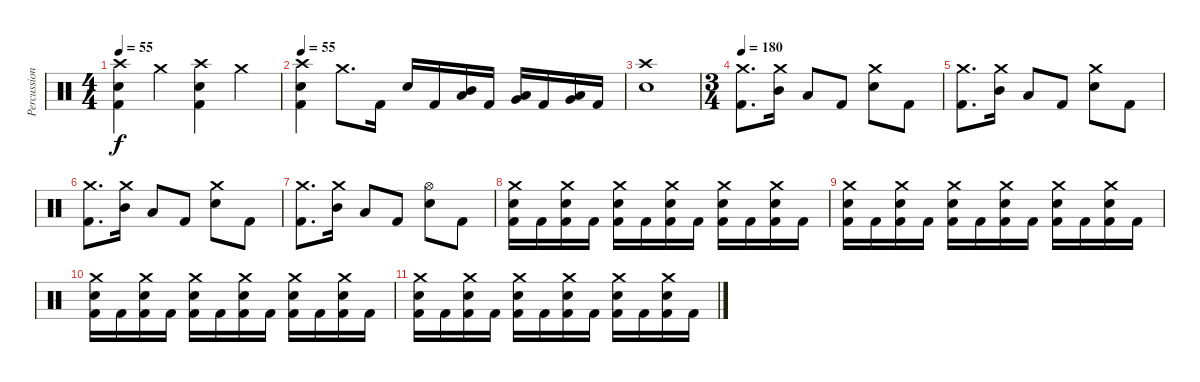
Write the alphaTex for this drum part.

\track ("Percussion" "Percussion") {instrument percussion}
\staff {score}
\articulation defaults
\ts (4 4)
\tempo 55
\clef neutral
\ks c
("Electric Snare (hit)" "Kick (hit) 2" "Crash high (hit)").4{dy f} "Crash medium (hit)".4 ("Electric Snare (hit)" "Kick (hit) 2" "Crash high (hit)").4 "Crash medium (hit)".4 |
\tempo 55
("Electric Snare (hit)" "Kick (hit) 2" "Crash high (hit)").4 "Crash medium (hit)".8{d} "Kick (hit) 2".16 "Electric Snare (hit)".16 "Kick (hit) 2".16 ("Low Tom (hit)" "Mid Tom (hit)").16 "Kick (hit) 2".16 ("Low Tom (hit)" "Very Low Tom (hit)").16 "Kick (hit) 2".16 ("Low Tom (hit)" "Very Low Tom (hit)").16 "Kick (hit) 2".16 |
("Crash high (hit)" "Electric Snare (hit)").1 |
\ts (3 4)
\tempo 180
("Kick (hit) 2" "Crash medium (hit)").8{d} ("Mid Tom (hit)" "Crash medium (hit)").16 "Low Tom (hit)".8 "Kick (hit) 2".8 ("Electric Snare (hit)" "Crash medium (hit)").8 "Kick (hit) 2".8 |
("Kick (hit) 2" "Crash medium (hit)").8{d} ("Mid Tom (hit)" "Crash medium (hit)").16 "Low Tom (hit)".8 "Kick (hit) 2".8 ("Electric Snare (hit)" "Crash medium (hit)").8 "Kick (hit) 2".8 |
("Kick (hit) 2" "Crash medium (hit)").8{d} ("Mid Tom (hit)" "Crash medium (hit)").16 "Low Tom (hit)".8 "Kick (hit) 2".8 ("Electric Snare (hit)" "Crash medium (hit)").8 "Kick (hit) 2".8 |
("Kick (hit) 2" "Crash medium (hit)").8{d} ("Mid Tom (hit)" "Crash medium (hit)").16 "Low Tom (hit)".8 "Kick (hit) 2".8 ("Electric Snare (hit)" "Hi-Hat (open)").8 "Kick (hit) 2".8 |
("Kick (hit) 2" "Electric Snare (hit)" "Crash medium (hit)").16 "Kick (hit) 2".16 ("Kick (hit) 2" "Electric Snare (hit)" "Crash medium (hit)").16 "Kick (hit) 2".16 ("Kick (hit) 2" "Electric Snare (hit)" "Crash medium (hit)").16 "Kick (hit) 2".16 ("Kick (hit) 2" "Electric Snare (hit)" "Crash medium (hit)").16 "Kick (hit) 2".16 ("Kick (hit) 2" "Electric Snare (hit)" "Crash medium (hit)").16 "Kick (hit) 2".16 ("Kick (hit) 2" "Electric Snare (hit)" "Crash medium (hit)").16 "Kick (hit) 2".16 |
("Kick (hit) 2" "Electric Snare (hit)" "Crash medium (hit)").16 "Kick (hit) 2".16 ("Kick (hit) 2" "Electric Snare (hit)" "Crash medium (hit)").16 "Kick (hit) 2".16 ("Kick (hit) 2" "Electric Snare (hit)" "Crash medium (hit)").16 "Kick (hit) 2".16 ("Kick (hit) 2" "Electric Snare (hit)" "Crash medium (hit)").16 "Kick (hit) 2".16 ("Kick (hit) 2" "Electric Snare (hit)" "Crash medium (hit)").16 "Kick (hit) 2".16 ("Kick (hit) 2" "Electric Snare (hit)" "Crash medium (hit)").16 "Kick (hit) 2".16 |
("Kick (hit) 2" "Electric Snare (hit)" "Crash medium (hit)").16 "Kick (hit) 2".16 ("Kick (hit) 2" "Electric Snare (hit)" "Crash medium (hit)").16 "Kick (hit) 2".16 ("Kick (hit) 2" "Electric Snare (hit)" "Crash medium (hit)").16 "Kick (hit) 2".16 ("Kick (hit) 2" "Electric Snare (hit)" "Crash medium (hit)").16 "Kick (hit) 2".16 ("Kick (hit) 2" "Electric Snare (hit)" "Crash medium (hit)").16 "Kick (hit) 2".16 ("Kick (hit) 2" "Electric Snare (hit)" "Crash medium (hit)").16 "Kick (hit) 2".16 |
("Kick (hit) 2" "Electric Snare (hit)" "Crash medium (hit)").16 "Kick (hit) 2".16 ("Kick (hit) 2" "Electric Snare (hit)" "Crash medium (hit)").16 "Kick (hit) 2".16 ("Kick (hit) 2" "Electric Snare (hit)" "Crash medium (hit)").16 "Kick (hit) 2".16 ("Kick (hit) 2" "Electric Snare (hit)" "Crash medium (hit)").16 "Kick (hit) 2".16 ("Kick (hit) 2" "Electric Snare (hit)" "Crash medium (hit)").16 "Kick (hit) 2".16 ("Kick (hit) 2" "Electric Snare (hit)" "Crash medium (hit)").16 "Kick (hit) 2".16
